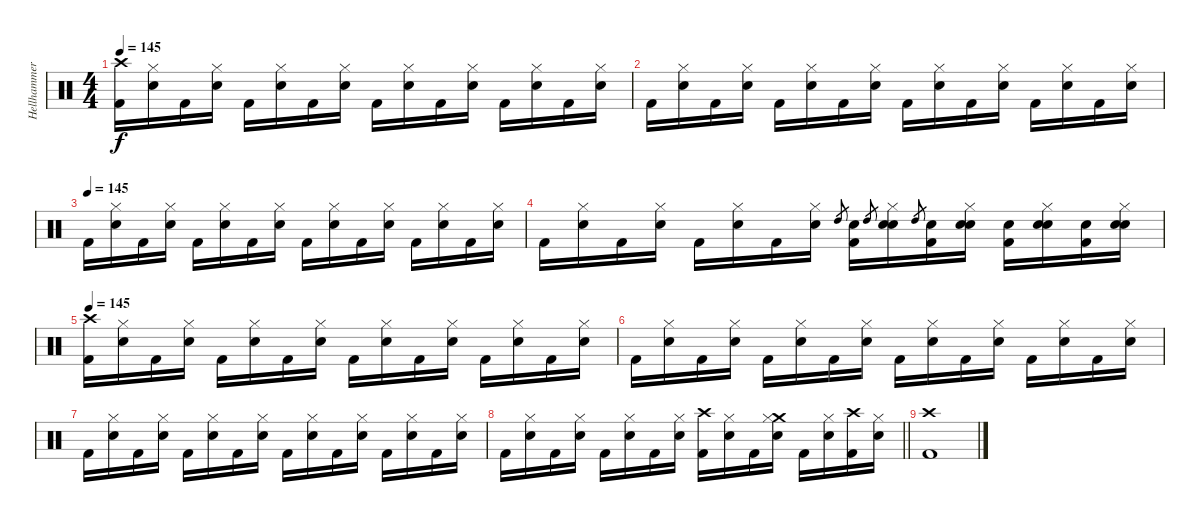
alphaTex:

\track ("Hellhammer" "Hellhammer") {instrument percussion}
\staff {score}
\articulation defaults
\ts (4 4)
\tempo 145
\clef neutral
\ks c
("Crash high (hit)" "Kick (hit) 2").16{dy f} ("Hi-Hat (closed)" "Snare (hit) 2").16 "Kick (hit) 2".16 ("Hi-Hat (closed)" "Snare (hit) 2").16 "Kick (hit) 2".16 ("Hi-Hat (closed)" "Snare (hit) 2").16 "Kick (hit) 2".16 ("Hi-Hat (closed)" "Snare (hit) 2").16 "Kick (hit) 2".16 ("Hi-Hat (closed)" "Snare (hit) 2").16 "Kick (hit) 2".16 ("Hi-Hat (closed)" "Snare (hit) 2").16 "Kick (hit) 2".16 ("Hi-Hat (closed)" "Snare (hit) 2").16 "Kick (hit) 2".16 ("Hi-Hat (closed)" "Snare (hit) 2").16 |
"Kick (hit) 2".16 ("Hi-Hat (closed)" "Snare (hit) 2").16 "Kick (hit) 2".16 ("Hi-Hat (closed)" "Snare (hit) 2").16 "Kick (hit) 2".16 ("Hi-Hat (closed)" "Snare (hit) 2").16 "Kick (hit) 2".16 ("Hi-Hat (closed)" "Snare (hit) 2").16 "Kick (hit) 2".16 ("Hi-Hat (closed)" "Snare (hit) 2").16 "Kick (hit) 2".16 ("Hi-Hat (closed)" "Snare (hit) 2").16 "Kick (hit) 2".16 ("Hi-Hat (closed)" "Snare (hit) 2").16 "Kick (hit) 2".16 ("Hi-Hat (closed)" "Snare (hit) 2").16 |
\tempo (145)
"Kick (hit) 2".16 ("Hi-Hat (closed)" "Snare (hit) 2").16 "Kick (hit) 2".16 ("Hi-Hat (closed)" "Snare (hit) 2").16 "Kick (hit) 2".16 ("Hi-Hat (closed)" "Snare (hit) 2").16 "Kick (hit) 2".16 ("Hi-Hat (closed)" "Snare (hit) 2").16 "Kick (hit) 2".16 ("Hi-Hat (closed)" "Snare (hit) 2").16 "Kick (hit) 2".16 ("Hi-Hat (closed)" "Snare (hit) 2").16 "Kick (hit) 2".16 ("Hi-Hat (closed)" "Snare (hit) 2").16 "Kick (hit) 2".16 ("Hi-Hat (closed)" "Snare (hit) 2").16 |
"Kick (hit) 2".16 ("Hi-Hat (closed)" "Snare (hit) 2").16 "Kick (hit) 2".16 ("Hi-Hat (closed)" "Snare (hit) 2").16 "Kick (hit) 2".16 ("Hi-Hat (closed)" "Snare (hit) 2").16 "Kick (hit) 2".16 ("Hi-Hat (closed)" "Snare (hit) 2").16 "High Tom (hit)".8{gr} ("Electric Snare (hit)" "Kick (hit) 2").16 "High Tom (hit)".8{gr} ("Electric Snare (hit)" "Hi-Hat (closed)" "Snare (hit) 2").16 "High Tom (hit)".8{gr} ("Electric Snare (hit)" "Kick (hit) 2").16 ("Electric Snare (hit)" "Hi-Hat (closed)" "Snare (hit) 2").16 ("Electric Snare (hit)" "Kick (hit) 2").16 ("Electric Snare (hit)" "Hi-Hat (closed)" "Snare (hit) 2").16 ("Electric Snare (hit)" "Kick (hit) 2").16 ("Electric Snare (hit)" "Hi-Hat (closed)" "Snare (hit) 2").16 |
\tempo 145
("Crash high (hit)" "Kick (hit) 2").16 ("Hi-Hat (closed)" "Snare (hit) 2").16 "Kick (hit) 2".16 ("Hi-Hat (closed)" "Snare (hit) 2").16 "Kick (hit) 2".16 ("Hi-Hat (closed)" "Snare (hit) 2").16 "Kick (hit) 2".16 ("Hi-Hat (closed)" "Snare (hit) 2").16 "Kick (hit) 2".16 ("Hi-Hat (closed)" "Snare (hit) 2").16 "Kick (hit) 2".16 ("Hi-Hat (closed)" "Snare (hit) 2").16 "Kick (hit) 2".16 ("Hi-Hat (closed)" "Snare (hit) 2").16 "Kick (hit) 2".16 ("Hi-Hat (closed)" "Snare (hit) 2").16 |
"Kick (hit) 2".16 ("Hi-Hat (closed)" "Snare (hit) 2").16 "Kick (hit) 2".16 ("Hi-Hat (closed)" "Snare (hit) 2").16 "Kick (hit) 2".16 ("Hi-Hat (closed)" "Snare (hit) 2").16 "Kick (hit) 2".16 ("Hi-Hat (closed)" "Snare (hit) 2").16 "Kick (hit) 2".16 ("Hi-Hat (closed)" "Snare (hit) 2").16 "Kick (hit) 2".16 ("Hi-Hat (closed)" "Snare (hit) 2").16 "Kick (hit) 2".16 ("Hi-Hat (closed)" "Snare (hit) 2").16 "Kick (hit) 2".16 ("Hi-Hat (closed)" "Snare (hit) 2").16 |
"Kick (hit) 2".16 ("Hi-Hat (closed)" "Snare (hit) 2").16 "Kick (hit) 2".16 ("Hi-Hat (closed)" "Snare (hit) 2").16 "Kick (hit) 2".16 ("Hi-Hat (closed)" "Snare (hit) 2").16 "Kick (hit) 2".16 ("Hi-Hat (closed)" "Snare (hit) 2").16 "Kick (hit) 2".16 ("Hi-Hat (closed)" "Snare (hit) 2").16 "Kick (hit) 2".16 ("Hi-Hat (closed)" "Snare (hit) 2").16 "Kick (hit) 2".16 ("Hi-Hat (closed)" "Snare (hit) 2").16 "Kick (hit) 2".16 ("Hi-Hat (closed)" "Snare (hit) 2").16 |
\barLineRight lightlight "Kick (hit) 2".16
("Hi-Hat (closed)" "Snare (hit) 2").16 "Kick (hit) 2".16 ("Hi-Hat (closed)" "Snare (hit) 2").16 "Kick (hit) 2".16 ("Hi-Hat (closed)" "Snare (hit) 2").16 "Kick (hit) 2".16 ("Hi-Hat (closed)" "Snare (hit) 2").16 ("Crash high (hit)" "Kick (hit) 2").16 ("Hi-Hat (closed)" "Snare (hit) 2").16 "Kick (hit) 2".16 ("Crash medium (hit)" "Hi-Hat (closed)" "Snare (hit) 2").16 "Kick (hit) 2".16 ("Hi-Hat (closed)" "Snare (hit) 2").16 ("Crash high (hit)" "Kick (hit) 2").16 ("Hi-Hat (closed)" "Snare (hit) 2").16 |
("Crash high (hit)" "Kick (hit) 2").1
